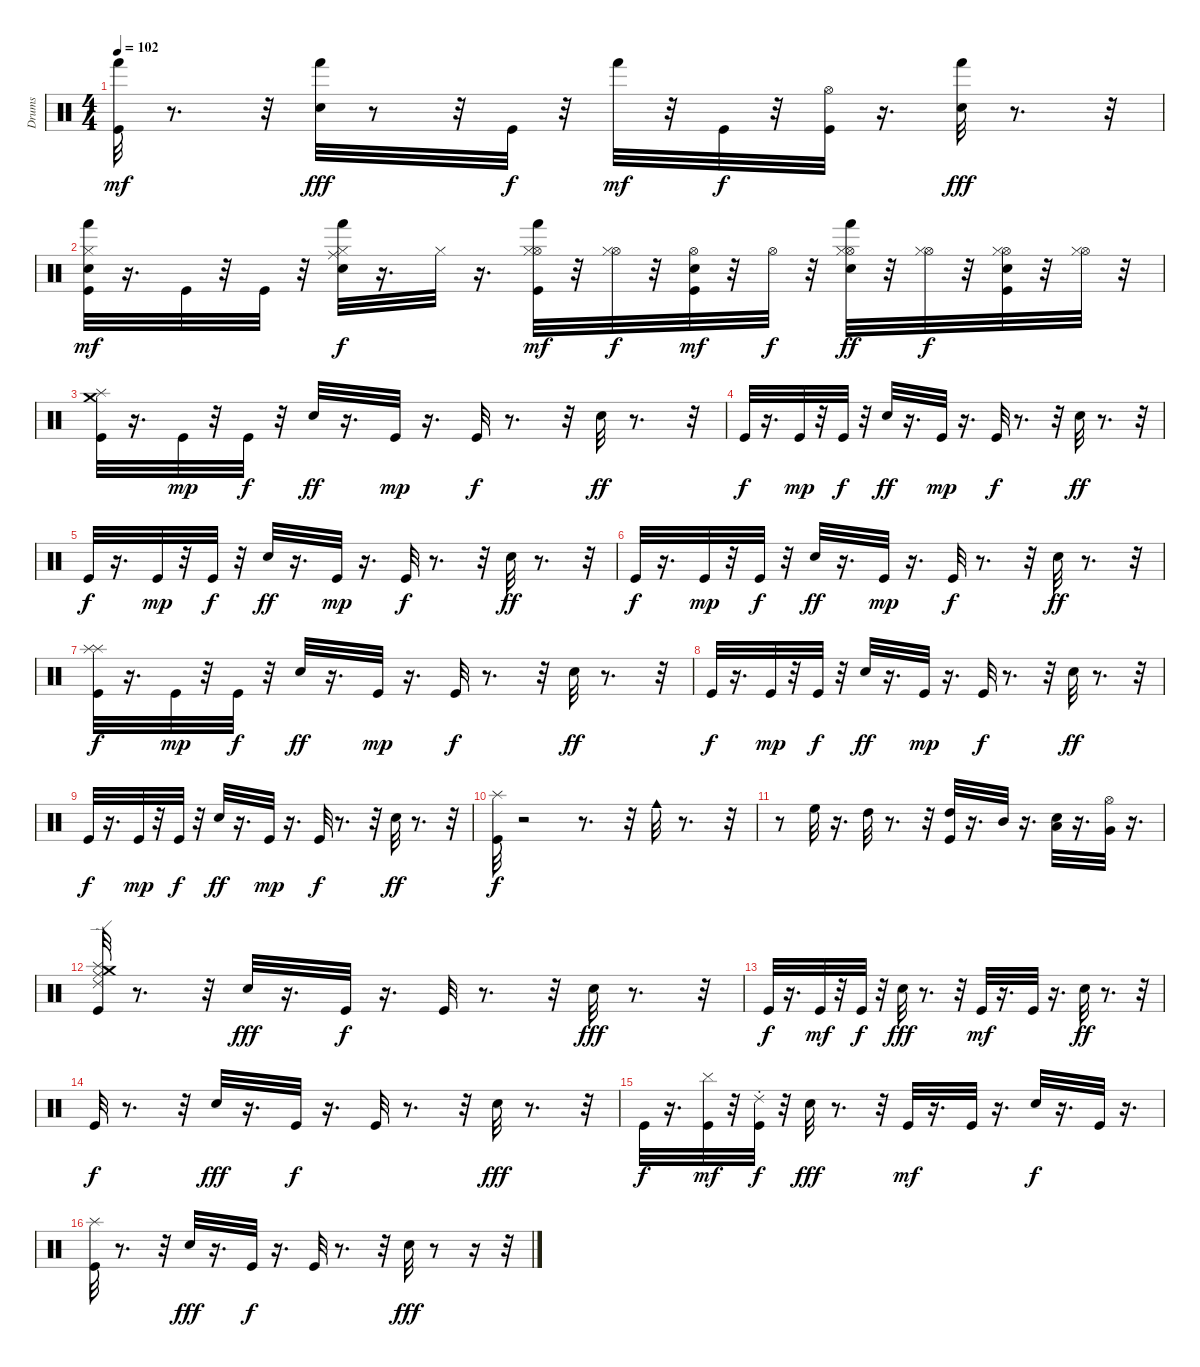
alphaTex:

\track ("Drums" "Drums") {instrument percussion}
\staff {score}
\articulation defaults
\ts (4 4)
\tempo 102
\clef neutral
\ks c
("Hand (hit)" "Kick (hit)").32{dy mf} r.8{d} r.32 ("Hand (hit)" "Electric Snare (hit)").32{dy fff} r.8 r.32 "Kick (hit)".32{dy f} r.32 "Hand (hit)".32{dy mf} r.32 "Kick (hit)".32{dy f} r.32 ("Kick (hit)" "Hi-Hat (open)").32 r.16{d} ("Hand (hit)" "Electric Snare (hit)").32{dy fff} r.8{d} r.32 |
("Hi-Hat (closed)" "Electric Snare (hit)" "Hand (hit)" "Kick (hit)").32{dy mf} r.16{d} "Kick (hit)".32 r.32 "Kick (hit)".32 r.32 ("Ride (middle)" "Hi-Hat (closed)" "Hand (hit)" "Electric Snare (hit)").32{dy f} r.16{d} "Hi-Hat (closed)".32 r.16{d} ("Hi-Hat (open)" "Hi-Hat (closed)" "Hand (hit)" "Kick (hit)").32{dy mf} r.32 ("Hi-Hat (open)" "Hi-Hat (closed)").32{dy f} r.32 ("Hi-Hat (open)" "Electric Snare (hit)" "Kick (hit)").32{dy mf} r.32 "Hi-Hat (open)".32{dy f} r.32 ("Hi-Hat (open)" "Hi-Hat (closed)" "Hand (hit)" "Electric Snare (hit)").32{dy ff} r.32 ("Hi-Hat (open)" "Hi-Hat (closed)").32{dy f} r.32 ("Hi-Hat (open)" "Hi-Hat (closed)" "Kick (hit)" "Electric Snare (hit)").32 r.32 ("Hi-Hat (open)" "Hi-Hat (closed)").32 r.32 |
("Crash medium (hit)" "Kick (hit)" "Splash (hit)").32 r.16{d} "Kick (hit)".32{dy mp} r.32 "Kick (hit)".32{dy f} r.32 "Electric Snare (hit)".32{dy ff} r.16{d} "Kick (hit)".32{dy mp} r.16{d} "Kick (hit)".32{dy f} r.8{d} r.32 "Electric Snare (hit)".32{dy ff} r.8{d} r.32 |
"Kick (hit)".32{dy f} r.16{d} "Kick (hit)".32{dy mp} r.32 "Kick (hit)".32{dy f} r.32 "Electric Snare (hit)".32{dy ff} r.16{d} "Kick (hit)".32{dy mp} r.16{d} "Kick (hit)".32{dy f} r.8{d} r.32 "Electric Snare (hit)".32{dy ff} r.8{d} r.32 |
"Kick (hit)".32{dy f} r.16{d} "Kick (hit)".32{dy mp} r.32 "Kick (hit)".32{dy f} r.32 "Electric Snare (hit)".32{dy ff} r.16{d} "Kick (hit)".32{dy mp} r.16{d} "Kick (hit)".32{dy f} r.8{d} r.32 "Electric Snare (hit)".32{dy ff} r.8{d} r.32 |
"Kick (hit)".32{dy f} r.16{d} "Kick (hit)".32{dy mp} r.32 "Kick (hit)".32{dy f} r.32 "Electric Snare (hit)".32{dy ff} r.16{d} "Kick (hit)".32{dy mp} r.16{d} "Kick (hit)".32{dy f} r.8{d} r.32 "Electric Snare (hit)".32{dy ff} r.8{d} r.32 |
("Splash (hit)" "Splash (hit)" "Kick (hit)").32{dy f} r.16{d} "Kick (hit)".32{dy mp} r.32 "Kick (hit)".32{dy f} r.32 "Electric Snare (hit)".32{dy ff} r.16{d} "Kick (hit)".32{dy mp} r.16{d} "Kick (hit)".32{dy f} r.8{d} r.32 "Electric Snare (hit)".32{dy ff} r.8{d} r.32 |
"Kick (hit)".32{dy f} r.16{d} "Kick (hit)".32{dy mp} r.32 "Kick (hit)".32{dy f} r.32 "Electric Snare (hit)".32{dy ff} r.16{d} "Kick (hit)".32{dy mp} r.16{d} "Kick (hit)".32{dy f} r.8{d} r.32 "Electric Snare (hit)".32{dy ff} r.8{d} r.32 |
"Kick (hit)".32{dy f} r.16{d} "Kick (hit)".32{dy mp} r.32 "Kick (hit)".32{dy f} r.32 "Electric Snare (hit)".32{dy ff} r.16{d} "Kick (hit)".32{dy mp} r.16{d} "Kick (hit)".32{dy f} r.8{d} r.32 "Electric Snare (hit)".32{dy ff} r.8{d} r.32 |
("Splash (hit)" "Kick (hit)").32{dy f} r.2 r.8{d} r.32 "Cowbell medium (hit)".32 r.8{d} r.32 |
r.8 "High Floor Tom (hit)".32 r.16{d} "High Tom (hit)".32 r.8{d} r.32 ("Kick (hit)" "High Tom (hit)").32 r.16{d} "Mid Tom (hit)".32 r.16{d} ("Electric Snare (hit)" "Low Tom (hit)").32 r.16{d} ("Hi-Hat (open)" "Very Low Tom (hit)").32 r.16{d} |
("Splash (hit)" "Crash medium (hit)" "Ride (edge) 2" "Ride (middle)" "Kick (hit)").32 r.8{d} r.32 "Electric Snare (hit)".32{dy fff} r.16{d} "Kick (hit)".32{dy f} r.16{d} "Kick (hit)".32 r.8{d} r.32 "Electric Snare (hit)".32{dy fff} r.8{d} r.32 |
"Kick (hit)".32{dy f} r.16{d} "Kick (hit)".32{dy mf} r.32 "Kick (hit)".32{dy f} r.32 "Electric Snare (hit)".32{dy fff} r.8{d} r.32 "Kick (hit)".32{dy mf} r.16{d} "Kick (hit)".32 r.16{d} "Electric Snare (hit)".32{dy ff} r.8{d} r.32 |
"Kick (hit)".32{dy f} r.8{d} r.32 "Electric Snare (hit)".32{dy fff} r.16{d} "Kick (hit)".32{dy f} r.16{d} "Kick (hit)".32 r.8{d} r.32 "Electric Snare (hit)".32{dy fff} r.8{d} r.32 |
"Kick (hit)".32{dy f volume 16} r.16{d} ("Cymbal (hit)" "Kick (hit)").32{dy mf volume 15} r.32 ("Ride (choke) 2" "Kick (hit)").32{dy f volume 14} r.32 "Electric Snare (hit)".32{dy fff volume 14} r.8{d} r.32 "Kick (hit)".32{dy mf volume 12} r.16{d} "Kick (hit)".32{volume 11} r.16{d} "Electric Snare (hit)".32{dy f volume 10} r.16{d} "Kick (hit)".32{volume 9} r.16{d} |
("Splash (hit)" "Kick (hit)").32{volume 8} r.8{d} r.32 "Electric Snare (hit)".32{dy fff volume 6} r.16{d} "Kick (hit)".32{dy f volume 5} r.16{d} "Kick (hit)".32{volume 4} r.8{d} r.32 "Electric Snare (hit)".32{dy fff volume 2} r.8 r.16 r.32
